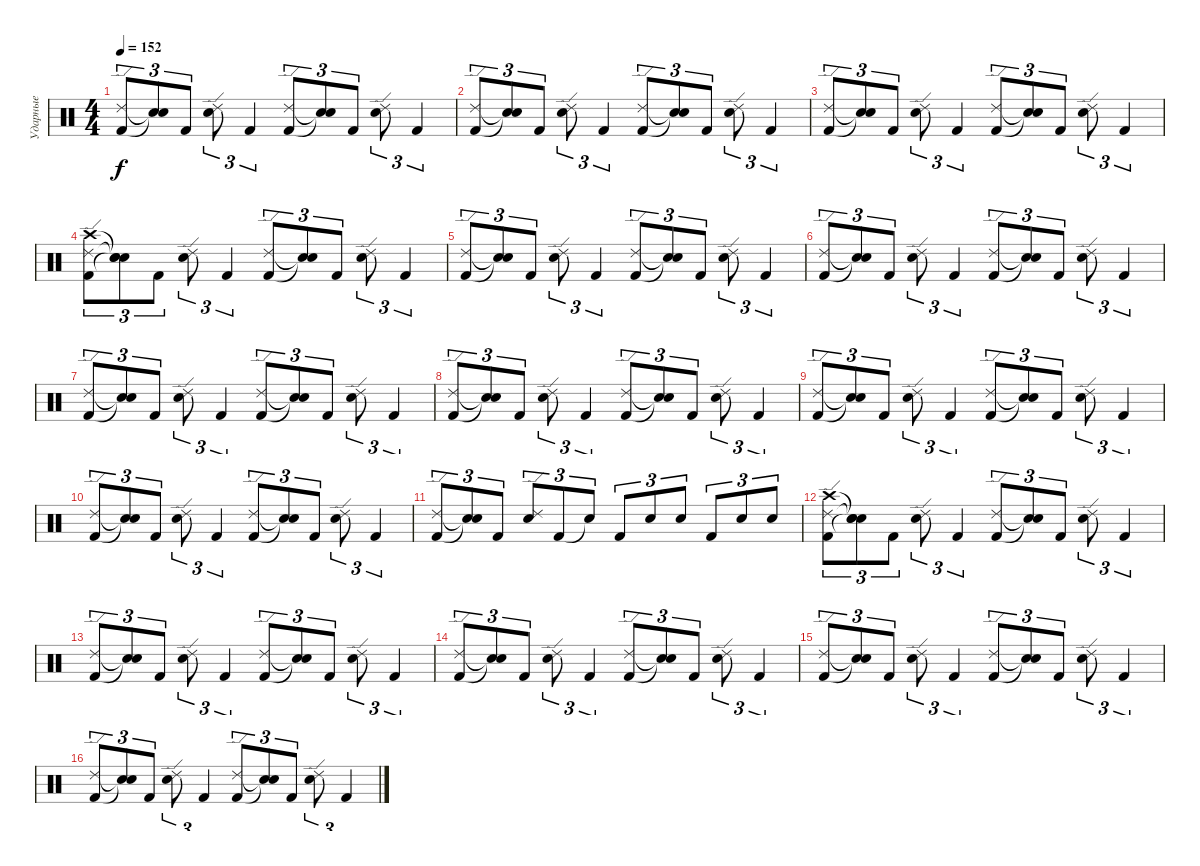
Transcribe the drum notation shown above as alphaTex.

\track ("Ударные" "Ударные") {instrument percussion}
\staff {score}
\articulation defaults
\ts (4 4)
\tempo 152
\clef neutral
\ks c
("Kick (hit) 2" "Ride (edge) 2").8{tu (3 2) dy f} ("Snare (hit)"{t} "Snare (hit)"{t}).8{tu (3 2)} "Kick (hit) 2".8{tu (3 2)} ("Electric Snare (hit)" "Ride (edge) 2").8{tu (3 2)} "Kick (hit) 2".4{tu (3 2)} ("Kick (hit) 2" "Ride (edge) 2").8{tu (3 2)} ("Snare (hit)"{t} "Snare (hit)"{t}).8{tu (3 2)} "Kick (hit) 2".8{tu (3 2)} ("Electric Snare (hit)" "Ride (edge) 2").8{tu (3 2)} "Kick (hit) 2".4{tu (3 2)} |
("Kick (hit) 2" "Ride (edge) 2").8{tu (3 2)} ("Snare (hit)"{t} "Snare (hit)"{t}).8{tu (3 2)} "Kick (hit) 2".8{tu (3 2)} ("Electric Snare (hit)" "Ride (edge) 2").8{tu (3 2)} "Kick (hit) 2".4{tu (3 2)} ("Kick (hit) 2" "Ride (edge) 2").8{tu (3 2)} ("Snare (hit)"{t} "Snare (hit)"{t}).8{tu (3 2)} "Kick (hit) 2".8{tu (3 2)} ("Electric Snare (hit)" "Ride (edge) 2").8{tu (3 2)} "Kick (hit) 2".4{tu (3 2)} |
("Kick (hit) 2" "Ride (edge) 2").8{tu (3 2)} ("Snare (hit)"{t} "Snare (hit)"{t}).8{tu (3 2)} "Kick (hit) 2".8{tu (3 2)} ("Electric Snare (hit)" "Ride (edge) 2").8{tu (3 2)} "Kick (hit) 2".4{tu (3 2)} ("Kick (hit) 2" "Ride (edge) 2").8{tu (3 2)} ("Snare (hit)"{t} "Snare (hit)"{t}).8{tu (3 2)} "Kick (hit) 2".8{tu (3 2)} ("Electric Snare (hit)" "Ride (edge) 2").8{tu (3 2)} "Kick (hit) 2".4{tu (3 2)} |
("Kick (hit) 2" "Crash high (hit)" "Ride (edge) 2").8{tu (3 2)} ("Snare (hit)"{t} "Snare (hit)"{t} "Snare (hit)"{t}).8{tu (3 2)} "Kick (hit) 2".8{tu (3 2)} ("Electric Snare (hit)" "Ride (edge) 2").8{tu (3 2)} "Kick (hit) 2".4{tu (3 2)} ("Kick (hit) 2" "Ride (edge) 2").8{tu (3 2)} ("Snare (hit)"{t} "Snare (hit)"{t}).8{tu (3 2)} "Kick (hit) 2".8{tu (3 2)} ("Electric Snare (hit)" "Ride (edge) 2").8{tu (3 2)} "Kick (hit) 2".4{tu (3 2)} |
("Kick (hit) 2" "Ride (edge) 2").8{tu (3 2)} ("Snare (hit)"{t} "Snare (hit)"{t}).8{tu (3 2)} "Kick (hit) 2".8{tu (3 2)} ("Electric Snare (hit)" "Ride (edge) 2").8{tu (3 2)} "Kick (hit) 2".4{tu (3 2)} ("Kick (hit) 2" "Ride (edge) 2").8{tu (3 2)} ("Snare (hit)"{t} "Snare (hit)"{t}).8{tu (3 2)} "Kick (hit) 2".8{tu (3 2)} ("Electric Snare (hit)" "Ride (edge) 2").8{tu (3 2)} "Kick (hit) 2".4{tu (3 2)} |
("Kick (hit) 2" "Ride (edge) 2").8{tu (3 2)} ("Snare (hit)"{t} "Snare (hit)"{t}).8{tu (3 2)} "Kick (hit) 2".8{tu (3 2)} ("Electric Snare (hit)" "Ride (edge) 2").8{tu (3 2)} "Kick (hit) 2".4{tu (3 2)} ("Kick (hit) 2" "Ride (edge) 2").8{tu (3 2)} ("Snare (hit)"{t} "Snare (hit)"{t}).8{tu (3 2)} "Kick (hit) 2".8{tu (3 2)} ("Electric Snare (hit)" "Ride (edge) 2").8{tu (3 2)} "Kick (hit) 2".4{tu (3 2)} |
("Kick (hit) 2" "Ride (edge) 2").8{tu (3 2)} ("Snare (hit)"{t} "Snare (hit)"{t}).8{tu (3 2)} "Kick (hit) 2".8{tu (3 2)} ("Electric Snare (hit)" "Ride (edge) 2").8{tu (3 2)} "Kick (hit) 2".4{tu (3 2)} ("Kick (hit) 2" "Ride (edge) 2").8{tu (3 2)} ("Snare (hit)"{t} "Snare (hit)"{t}).8{tu (3 2)} "Kick (hit) 2".8{tu (3 2)} ("Electric Snare (hit)" "Ride (edge) 2").8{tu (3 2)} "Kick (hit) 2".4{tu (3 2)} |
("Kick (hit) 2" "Ride (edge) 2").8{tu (3 2)} ("Snare (hit)"{t} "Snare (hit)"{t}).8{tu (3 2)} "Kick (hit) 2".8{tu (3 2)} ("Electric Snare (hit)" "Ride (edge) 2").8{tu (3 2)} "Kick (hit) 2".4{tu (3 2)} ("Kick (hit) 2" "Ride (edge) 2").8{tu (3 2)} ("Snare (hit)"{t} "Snare (hit)"{t}).8{tu (3 2)} "Kick (hit) 2".8{tu (3 2)} ("Electric Snare (hit)" "Ride (edge) 2").8{tu (3 2)} "Kick (hit) 2".4{tu (3 2)} |
("Kick (hit) 2" "Ride (edge) 2").8{tu (3 2)} ("Snare (hit)"{t} "Snare (hit)"{t}).8{tu (3 2)} "Kick (hit) 2".8{tu (3 2)} ("Electric Snare (hit)" "Ride (edge) 2").8{tu (3 2)} "Kick (hit) 2".4{tu (3 2)} ("Kick (hit) 2" "Ride (edge) 2").8{tu (3 2)} ("Snare (hit)"{t} "Snare (hit)"{t}).8{tu (3 2)} "Kick (hit) 2".8{tu (3 2)} ("Electric Snare (hit)" "Ride (edge) 2").8{tu (3 2)} "Kick (hit) 2".4{tu (3 2)} |
("Kick (hit) 2" "Ride (edge) 2").8{tu (3 2)} ("Snare (hit)"{t} "Snare (hit)"{t}).8{tu (3 2)} "Kick (hit) 2".8{tu (3 2)} ("Electric Snare (hit)" "Ride (edge) 2").8{tu (3 2)} "Kick (hit) 2".4{tu (3 2)} ("Kick (hit) 2" "Ride (edge) 2").8{tu (3 2)} ("Snare (hit)"{t} "Snare (hit)"{t}).8{tu (3 2)} "Kick (hit) 2".8{tu (3 2)} ("Electric Snare (hit)" "Ride (edge) 2").8{tu (3 2)} "Kick (hit) 2".4{tu (3 2)} |
("Kick (hit) 2" "Ride (edge) 2").8{tu (3 2)} ("Snare (hit)"{t} "Snare (hit)"{t}).8{tu (3 2)} "Kick (hit) 2".8{tu (3 2)} ("Electric Snare (hit)" "Ride (edge) 2").8{tu (3 2)} "Kick (hit) 2".8{tu (3 2)} "Snare (hit)"{t}.8{tu (3 2)} "Kick (hit) 2".8{tu (3 2)} "Electric Snare (hit)".8{tu (3 2)} "Electric Snare (hit)".8{tu (3 2)} "Kick (hit) 2".8{tu (3 2)} "Electric Snare (hit)".8{tu (3 2)} "Electric Snare (hit)".8{tu (3 2)} |
("Kick (hit) 2" "Crash high (hit)" "Ride (edge) 2").8{tu (3 2)} ("Snare (hit)"{t} "Snare (hit)"{t} "Snare (hit)"{t}).8{tu (3 2)} "Kick (hit) 2".8{tu (3 2)} ("Electric Snare (hit)" "Ride (edge) 2").8{tu (3 2)} "Kick (hit) 2".4{tu (3 2)} ("Kick (hit) 2" "Ride (edge) 2").8{tu (3 2)} ("Snare (hit)"{t} "Snare (hit)"{t}).8{tu (3 2)} "Kick (hit) 2".8{tu (3 2)} ("Electric Snare (hit)" "Ride (edge) 2").8{tu (3 2)} "Kick (hit) 2".4{tu (3 2)} |
("Kick (hit) 2" "Ride (edge) 2").8{tu (3 2)} ("Snare (hit)"{t} "Snare (hit)"{t}).8{tu (3 2)} "Kick (hit) 2".8{tu (3 2)} ("Electric Snare (hit)" "Ride (edge) 2").8{tu (3 2)} "Kick (hit) 2".4{tu (3 2)} ("Kick (hit) 2" "Ride (edge) 2").8{tu (3 2)} ("Snare (hit)"{t} "Snare (hit)"{t}).8{tu (3 2)} "Kick (hit) 2".8{tu (3 2)} ("Electric Snare (hit)" "Ride (edge) 2").8{tu (3 2)} "Kick (hit) 2".4{tu (3 2)} |
("Kick (hit) 2" "Ride (edge) 2").8{tu (3 2)} ("Snare (hit)"{t} "Snare (hit)"{t}).8{tu (3 2)} "Kick (hit) 2".8{tu (3 2)} ("Electric Snare (hit)" "Ride (edge) 2").8{tu (3 2)} "Kick (hit) 2".4{tu (3 2)} ("Kick (hit) 2" "Ride (edge) 2").8{tu (3 2)} ("Snare (hit)"{t} "Snare (hit)"{t}).8{tu (3 2)} "Kick (hit) 2".8{tu (3 2)} ("Electric Snare (hit)" "Ride (edge) 2").8{tu (3 2)} "Kick (hit) 2".4{tu (3 2)} |
("Kick (hit) 2" "Ride (edge) 2").8{tu (3 2)} ("Snare (hit)"{t} "Snare (hit)"{t}).8{tu (3 2)} "Kick (hit) 2".8{tu (3 2)} ("Electric Snare (hit)" "Ride (edge) 2").8{tu (3 2)} "Kick (hit) 2".4{tu (3 2)} ("Kick (hit) 2" "Ride (edge) 2").8{tu (3 2)} ("Snare (hit)"{t} "Snare (hit)"{t}).8{tu (3 2)} "Kick (hit) 2".8{tu (3 2)} ("Electric Snare (hit)" "Ride (edge) 2").8{tu (3 2)} "Kick (hit) 2".4{tu (3 2)} |
("Kick (hit) 2" "Ride (edge) 2").8{tu (3 2)} ("Snare (hit)"{t} "Snare (hit)"{t}).8{tu (3 2)} "Kick (hit) 2".8{tu (3 2)} ("Electric Snare (hit)" "Ride (edge) 2").8{tu (3 2)} "Kick (hit) 2".4{tu (3 2)} ("Kick (hit) 2" "Ride (edge) 2").8{tu (3 2)} ("Snare (hit)"{t} "Snare (hit)"{t}).8{tu (3 2)} "Kick (hit) 2".8{tu (3 2)} ("Electric Snare (hit)" "Ride (edge) 2").8{tu (3 2)} "Kick (hit) 2".4{tu (3 2)}
